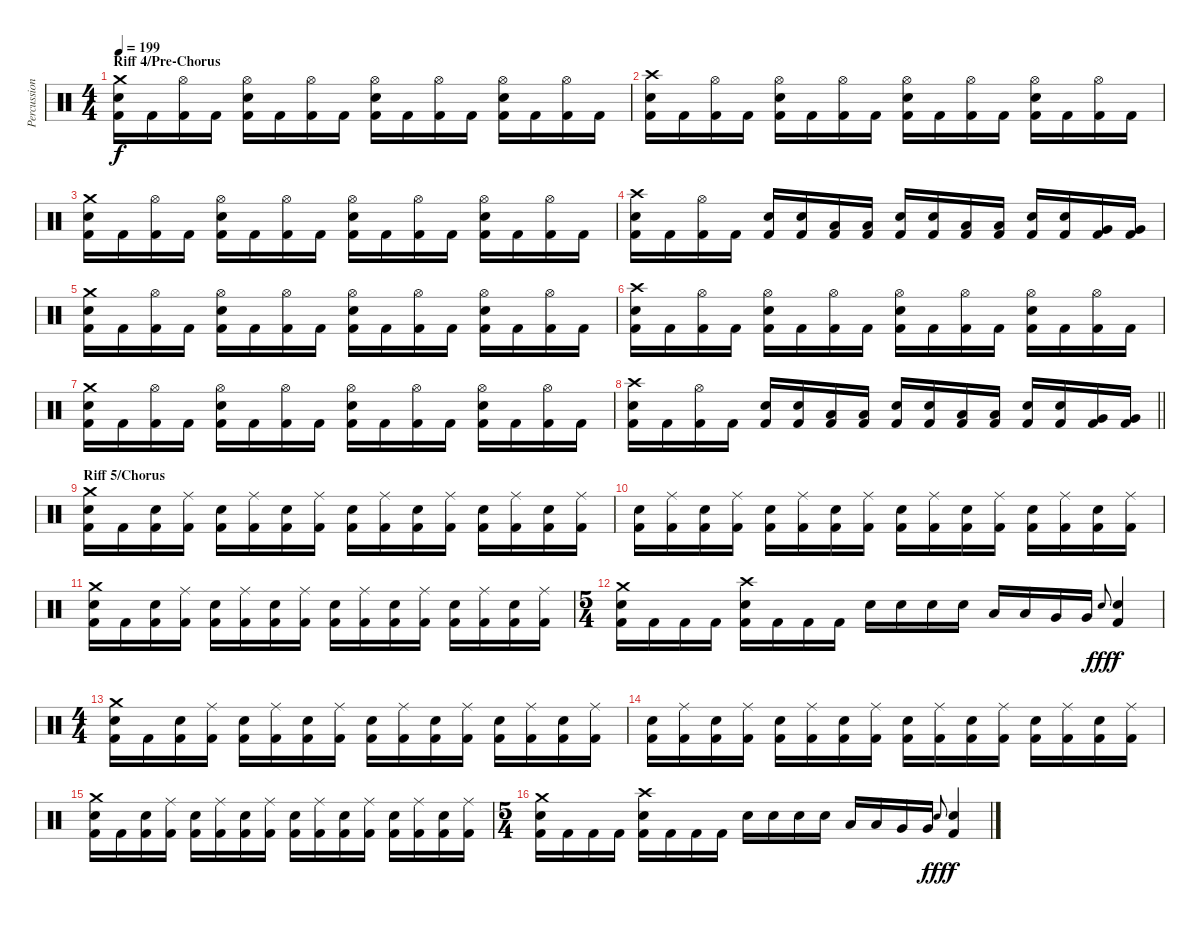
\track ("Percussion" "Percussion") {instrument percussion}
\staff {score}
\articulation defaults
\ts (4 4)
\section ("" "Riff 4/Pre-Chorus")
\tempo 199
\clef neutral
\ks c
("Crash medium (hit)" "Electric Snare (hit)" "Kick (hit) 2").16{dy f} "Kick (hit) 2".16 ("Hi-Hat (open)" "Kick (hit) 2").16 "Kick (hit) 2".16 ("Hi-Hat (open)" "Electric Snare (hit)" "Kick (hit) 2").16 "Kick (hit) 2".16 ("Hi-Hat (open)" "Kick (hit) 2").16 "Kick (hit) 2".16 ("Hi-Hat (open)" "Electric Snare (hit)" "Kick (hit) 2").16 "Kick (hit) 2".16 ("Hi-Hat (open)" "Kick (hit) 2").16 "Kick (hit) 2".16 ("Hi-Hat (open)" "Electric Snare (hit)" "Kick (hit) 2").16 "Kick (hit) 2".16 ("Hi-Hat (open)" "Kick (hit) 2").16 "Kick (hit) 2".16 |
("Crash high (hit)" "Electric Snare (hit)" "Kick (hit) 2").16 "Kick (hit) 2".16 ("Hi-Hat (open)" "Kick (hit) 2").16 "Kick (hit) 2".16 ("Hi-Hat (open)" "Electric Snare (hit)" "Kick (hit) 2").16 "Kick (hit) 2".16 ("Hi-Hat (open)" "Kick (hit) 2").16 "Kick (hit) 2".16 ("Hi-Hat (open)" "Electric Snare (hit)" "Kick (hit) 2").16 "Kick (hit) 2".16 ("Hi-Hat (open)" "Kick (hit) 2").16 "Kick (hit) 2".16 ("Hi-Hat (open)" "Electric Snare (hit)" "Kick (hit) 2").16 "Kick (hit) 2".16 ("Hi-Hat (open)" "Kick (hit) 2").16 "Kick (hit) 2".16 |
("Crash medium (hit)" "Electric Snare (hit)" "Kick (hit) 2").16 "Kick (hit) 2".16 ("Hi-Hat (open)" "Kick (hit) 2").16 "Kick (hit) 2".16 ("Hi-Hat (open)" "Electric Snare (hit)" "Kick (hit) 2").16 "Kick (hit) 2".16 ("Hi-Hat (open)" "Kick (hit) 2").16 "Kick (hit) 2".16 ("Hi-Hat (open)" "Electric Snare (hit)" "Kick (hit) 2").16 "Kick (hit) 2".16 ("Hi-Hat (open)" "Kick (hit) 2").16 "Kick (hit) 2".16 ("Hi-Hat (open)" "Electric Snare (hit)" "Kick (hit) 2").16 "Kick (hit) 2".16 ("Hi-Hat (open)" "Kick (hit) 2").16 "Kick (hit) 2".16 |
("Crash high (hit)" "Electric Snare (hit)" "Kick (hit) 2").16 "Kick (hit) 2".16 ("Hi-Hat (open)" "Kick (hit) 2").16 "Kick (hit) 2".16 ("Electric Snare (hit)" "Kick (hit) 2").16 ("Electric Snare (hit)" "Kick (hit) 2").16 ("Low Tom (hit)" "Kick (hit) 2").16 ("Low Tom (hit)" "Kick (hit) 2").16 ("Electric Snare (hit)" "Kick (hit) 2").16 ("Electric Snare (hit)" "Kick (hit) 2").16 ("Low Floor Tom (hit)" "Kick (hit) 2").16 ("Low Floor Tom (hit)" "Kick (hit) 2").16 ("Electric Snare (hit)" "Kick (hit) 2").16 ("Electric Snare (hit)" "Kick (hit) 2").16 ("Very Low Tom (hit)" "Kick (hit) 2").16 ("Very Low Tom (hit)" "Kick (hit) 2").16 |
("Crash medium (hit)" "Electric Snare (hit)" "Kick (hit) 2").16 "Kick (hit) 2".16 ("Hi-Hat (open)" "Kick (hit) 2").16 "Kick (hit) 2".16 ("Hi-Hat (open)" "Electric Snare (hit)" "Kick (hit) 2").16 "Kick (hit) 2".16 ("Hi-Hat (open)" "Kick (hit) 2").16 "Kick (hit) 2".16 ("Hi-Hat (open)" "Electric Snare (hit)" "Kick (hit) 2").16 "Kick (hit) 2".16 ("Hi-Hat (open)" "Kick (hit) 2").16 "Kick (hit) 2".16 ("Hi-Hat (open)" "Electric Snare (hit)" "Kick (hit) 2").16 "Kick (hit) 2".16 ("Hi-Hat (open)" "Kick (hit) 2").16 "Kick (hit) 2".16 |
("Crash high (hit)" "Electric Snare (hit)" "Kick (hit) 2").16 "Kick (hit) 2".16 ("Hi-Hat (open)" "Kick (hit) 2").16 "Kick (hit) 2".16 ("Hi-Hat (open)" "Electric Snare (hit)" "Kick (hit) 2").16 "Kick (hit) 2".16 ("Hi-Hat (open)" "Kick (hit) 2").16 "Kick (hit) 2".16 ("Hi-Hat (open)" "Electric Snare (hit)" "Kick (hit) 2").16 "Kick (hit) 2".16 ("Hi-Hat (open)" "Kick (hit) 2").16 "Kick (hit) 2".16 ("Hi-Hat (open)" "Electric Snare (hit)" "Kick (hit) 2").16 "Kick (hit) 2".16 ("Hi-Hat (open)" "Kick (hit) 2").16 "Kick (hit) 2".16 |
("Crash medium (hit)" "Electric Snare (hit)" "Kick (hit) 2").16 "Kick (hit) 2".16 ("Hi-Hat (open)" "Kick (hit) 2").16 "Kick (hit) 2".16 ("Hi-Hat (open)" "Electric Snare (hit)" "Kick (hit) 2").16 "Kick (hit) 2".16 ("Hi-Hat (open)" "Kick (hit) 2").16 "Kick (hit) 2".16 ("Hi-Hat (open)" "Electric Snare (hit)" "Kick (hit) 2").16 "Kick (hit) 2".16 ("Hi-Hat (open)" "Kick (hit) 2").16 "Kick (hit) 2".16 ("Hi-Hat (open)" "Electric Snare (hit)" "Kick (hit) 2").16 "Kick (hit) 2".16 ("Hi-Hat (open)" "Kick (hit) 2").16 "Kick (hit) 2".16 |
\barLineRight lightlight
("Crash high (hit)" "Electric Snare (hit)" "Kick (hit) 2").16 "Kick (hit) 2".16 ("Hi-Hat (open)" "Kick (hit) 2").16 "Kick (hit) 2".16 ("Electric Snare (hit)" "Kick (hit) 2").16 ("Electric Snare (hit)" "Kick (hit) 2").16 ("Low Tom (hit)" "Kick (hit) 2").16 ("Low Tom (hit)" "Kick (hit) 2").16 ("Electric Snare (hit)" "Kick (hit) 2").16 ("Electric Snare (hit)" "Kick (hit) 2").16 ("Low Floor Tom (hit)" "Kick (hit) 2").16 ("Low Floor Tom (hit)" "Kick (hit) 2").16 ("Electric Snare (hit)" "Kick (hit) 2").16 ("Electric Snare (hit)" "Kick (hit) 2").16 ("Very Low Tom (hit)" "Kick (hit) 2").16 ("Very Low Tom (hit)" "Kick (hit) 2").16 |
\section ("" "Riff 5/Chorus")
("Crash medium (hit)" "Electric Snare (hit)" "Kick (hit) 2").16 "Kick (hit) 2".16 ("Electric Snare (hit)" "Kick (hit) 2").16 ("Ride (middle)" "Kick (hit) 2").16 ("Electric Snare (hit)" "Kick (hit) 2").16 ("Ride (middle)" "Kick (hit) 2").16 ("Electric Snare (hit)" "Kick (hit) 2").16 ("Ride (middle)" "Kick (hit) 2").16 ("Electric Snare (hit)" "Kick (hit) 2").16 ("Ride (middle)" "Kick (hit) 2").16 ("Electric Snare (hit)" "Kick (hit) 2").16 ("Ride (middle)" "Kick (hit) 2").16 ("Electric Snare (hit)" "Kick (hit) 2").16 ("Ride (middle)" "Kick (hit) 2").16 ("Electric Snare (hit)" "Kick (hit) 2").16 ("Ride (middle)" "Kick (hit) 2").16 |
("Electric Snare (hit)" "Kick (hit) 2").16 ("Ride (middle)" "Kick (hit) 2").16 ("Electric Snare (hit)" "Kick (hit) 2").16 ("Ride (middle)" "Kick (hit) 2").16 ("Electric Snare (hit)" "Kick (hit) 2").16 ("Ride (middle)" "Kick (hit) 2").16 ("Electric Snare (hit)" "Kick (hit) 2").16 ("Ride (middle)" "Kick (hit) 2").16 ("Electric Snare (hit)" "Kick (hit) 2").16 ("Ride (middle)" "Kick (hit) 2").16 ("Electric Snare (hit)" "Kick (hit) 2").16 ("Ride (middle)" "Kick (hit) 2").16 ("Electric Snare (hit)" "Kick (hit) 2").16 ("Ride (middle)" "Kick (hit) 2").16 ("Electric Snare (hit)" "Kick (hit) 2").16 ("Ride (middle)" "Kick (hit) 2").16 |
("Crash medium (hit)" "Electric Snare (hit)" "Kick (hit) 2").16 "Kick (hit) 2".16 ("Electric Snare (hit)" "Kick (hit) 2").16 ("Ride (middle)" "Kick (hit) 2").16 ("Electric Snare (hit)" "Kick (hit) 2").16 ("Ride (middle)" "Kick (hit) 2").16 ("Electric Snare (hit)" "Kick (hit) 2").16 ("Ride (middle)" "Kick (hit) 2").16 ("Electric Snare (hit)" "Kick (hit) 2").16 ("Ride (middle)" "Kick (hit) 2").16 ("Electric Snare (hit)" "Kick (hit) 2").16 ("Ride (middle)" "Kick (hit) 2").16 ("Electric Snare (hit)" "Kick (hit) 2").16 ("Ride (middle)" "Kick (hit) 2").16 ("Electric Snare (hit)" "Kick (hit) 2").16 ("Ride (middle)" "Kick (hit) 2").16 |
\ts (5 4)
("Crash medium (hit)" "Electric Snare (hit)" "Kick (hit) 2").16 "Kick (hit) 2".16 "Kick (hit) 2".16 "Kick (hit) 2".16 ("Crash high (hit)" "Electric Snare (hit)" "Kick (hit) 2").16 "Kick (hit) 2".16 "Kick (hit) 2".16 "Kick (hit) 2".16 "Electric Snare (hit)".16 "Electric Snare (hit)".16 "Electric Snare (hit)".16 "Electric Snare (hit)".16 "Low Floor Tom (hit)".16 "Low Floor Tom (hit)".16 "Very Low Tom (hit)".16 "Very Low Tom (hit)".16 "Electric Snare (hit)".8{gr onbeat dy fff} ("Electric Snare (hit)" "Kick (hit) 2").4{dy f} |
\ts (4 4)
("Crash medium (hit)" "Electric Snare (hit)" "Kick (hit) 2").16 "Kick (hit) 2".16 ("Electric Snare (hit)" "Kick (hit) 2").16 ("Ride (middle)" "Kick (hit) 2").16 ("Electric Snare (hit)" "Kick (hit) 2").16 ("Ride (middle)" "Kick (hit) 2").16 ("Electric Snare (hit)" "Kick (hit) 2").16 ("Ride (middle)" "Kick (hit) 2").16 ("Electric Snare (hit)" "Kick (hit) 2").16 ("Ride (middle)" "Kick (hit) 2").16 ("Electric Snare (hit)" "Kick (hit) 2").16 ("Ride (middle)" "Kick (hit) 2").16 ("Electric Snare (hit)" "Kick (hit) 2").16 ("Ride (middle)" "Kick (hit) 2").16 ("Electric Snare (hit)" "Kick (hit) 2").16 ("Ride (middle)" "Kick (hit) 2").16 |
("Electric Snare (hit)" "Kick (hit) 2").16 ("Ride (middle)" "Kick (hit) 2").16 ("Electric Snare (hit)" "Kick (hit) 2").16 ("Ride (middle)" "Kick (hit) 2").16 ("Electric Snare (hit)" "Kick (hit) 2").16 ("Ride (middle)" "Kick (hit) 2").16 ("Electric Snare (hit)" "Kick (hit) 2").16 ("Ride (middle)" "Kick (hit) 2").16 ("Electric Snare (hit)" "Kick (hit) 2").16 ("Ride (middle)" "Kick (hit) 2").16 ("Electric Snare (hit)" "Kick (hit) 2").16 ("Ride (middle)" "Kick (hit) 2").16 ("Electric Snare (hit)" "Kick (hit) 2").16 ("Ride (middle)" "Kick (hit) 2").16 ("Electric Snare (hit)" "Kick (hit) 2").16 ("Ride (middle)" "Kick (hit) 2").16 |
("Crash medium (hit)" "Electric Snare (hit)" "Kick (hit) 2").16 "Kick (hit) 2".16 ("Electric Snare (hit)" "Kick (hit) 2").16 ("Ride (middle)" "Kick (hit) 2").16 ("Electric Snare (hit)" "Kick (hit) 2").16 ("Ride (middle)" "Kick (hit) 2").16 ("Electric Snare (hit)" "Kick (hit) 2").16 ("Ride (middle)" "Kick (hit) 2").16 ("Electric Snare (hit)" "Kick (hit) 2").16 ("Ride (middle)" "Kick (hit) 2").16 ("Electric Snare (hit)" "Kick (hit) 2").16 ("Ride (middle)" "Kick (hit) 2").16 ("Electric Snare (hit)" "Kick (hit) 2").16 ("Ride (middle)" "Kick (hit) 2").16 ("Electric Snare (hit)" "Kick (hit) 2").16 ("Ride (middle)" "Kick (hit) 2").16 |
\ts (5 4)
("Crash medium (hit)" "Electric Snare (hit)" "Kick (hit) 2").16 "Kick (hit) 2".16 "Kick (hit) 2".16 "Kick (hit) 2".16 ("Crash high (hit)" "Electric Snare (hit)" "Kick (hit) 2").16 "Kick (hit) 2".16 "Kick (hit) 2".16 "Kick (hit) 2".16 "Electric Snare (hit)".16 "Electric Snare (hit)".16 "Electric Snare (hit)".16 "Electric Snare (hit)".16 "Low Floor Tom (hit)".16 "Low Floor Tom (hit)".16 "Very Low Tom (hit)".16 "Very Low Tom (hit)".16 "Electric Snare (hit)".8{gr onbeat dy fff} ("Electric Snare (hit)" "Kick (hit) 2").4{dy f}
